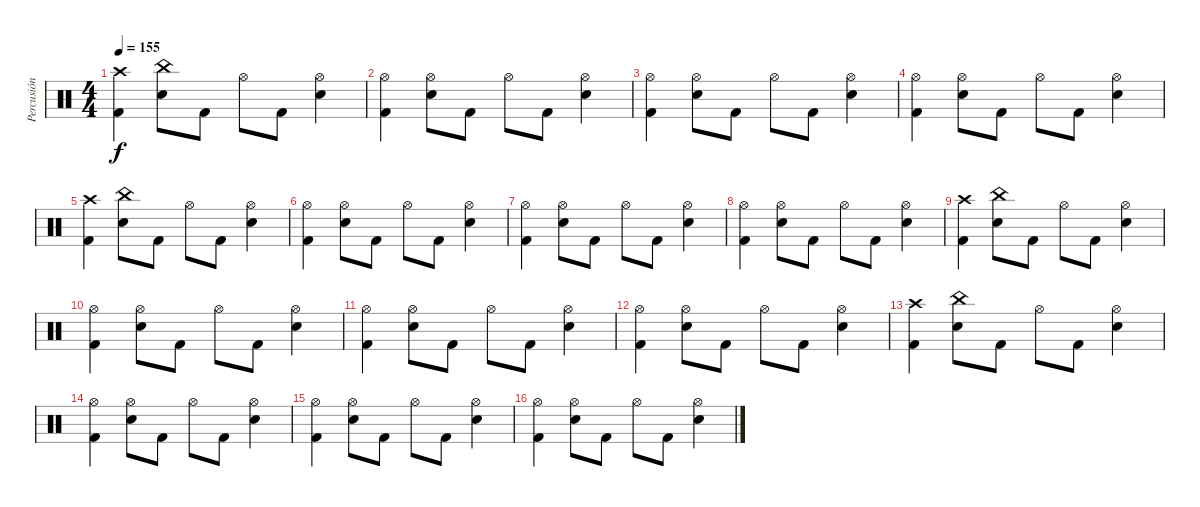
\track ("Percusión" "Percusión") {instrument percussion}
\staff {score}
\articulation defaults
\ts (4 4)
\tempo 155
\clef neutral
\ks c
("Crash high (hit)" "Kick (hit) 2").4{dy f} ("China (hit)" "Electric Snare (hit)").8 "Kick (hit) 2".8 "Hi-Hat (open)".8 "Kick (hit) 2".8 ("Hi-Hat (open)" "Electric Snare (hit)").4 |
("Hi-Hat (open)" "Kick (hit) 2").4 ("Hi-Hat (open)" "Electric Snare (hit)").8 "Kick (hit) 2".8 "Hi-Hat (open)".8 "Kick (hit) 2".8 ("Hi-Hat (open)" "Electric Snare (hit)").4 |
("Hi-Hat (open)" "Kick (hit) 2").4 ("Hi-Hat (open)" "Electric Snare (hit)").8 "Kick (hit) 2".8 "Hi-Hat (open)".8 "Kick (hit) 2".8 ("Hi-Hat (open)" "Electric Snare (hit)").4 |
("Hi-Hat (open)" "Kick (hit) 2").4 ("Hi-Hat (open)" "Electric Snare (hit)").8 "Kick (hit) 2".8 "Hi-Hat (open)".8 "Kick (hit) 2".8 ("Hi-Hat (open)" "Electric Snare (hit)").4 |
("Crash high (hit)" "Kick (hit) 2").4 ("China (hit)" "Electric Snare (hit)").8 "Kick (hit) 2".8 "Hi-Hat (open)".8 "Kick (hit) 2".8 ("Hi-Hat (open)" "Electric Snare (hit)").4 |
("Hi-Hat (open)" "Kick (hit) 2").4 ("Hi-Hat (open)" "Electric Snare (hit)").8 "Kick (hit) 2".8 "Hi-Hat (open)".8 "Kick (hit) 2".8 ("Hi-Hat (open)" "Electric Snare (hit)").4 |
("Hi-Hat (open)" "Kick (hit) 2").4 ("Hi-Hat (open)" "Electric Snare (hit)").8 "Kick (hit) 2".8 "Hi-Hat (open)".8 "Kick (hit) 2".8 ("Hi-Hat (open)" "Electric Snare (hit)").4 |
("Hi-Hat (open)" "Kick (hit) 2").4 ("Hi-Hat (open)" "Electric Snare (hit)").8 "Kick (hit) 2".8 "Hi-Hat (open)".8 "Kick (hit) 2".8 ("Hi-Hat (open)" "Electric Snare (hit)").4 |
("Crash high (hit)" "Kick (hit) 2").4 ("China (hit)" "Electric Snare (hit)").8 "Kick (hit) 2".8 "Hi-Hat (open)".8 "Kick (hit) 2".8 ("Hi-Hat (open)" "Electric Snare (hit)").4 |
("Hi-Hat (open)" "Kick (hit) 2").4 ("Hi-Hat (open)" "Electric Snare (hit)").8 "Kick (hit) 2".8 "Hi-Hat (open)".8 "Kick (hit) 2".8 ("Hi-Hat (open)" "Electric Snare (hit)").4 |
("Hi-Hat (open)" "Kick (hit) 2").4 ("Hi-Hat (open)" "Electric Snare (hit)").8 "Kick (hit) 2".8 "Hi-Hat (open)".8 "Kick (hit) 2".8 ("Hi-Hat (open)" "Electric Snare (hit)").4 |
("Hi-Hat (open)" "Kick (hit) 2").4 ("Hi-Hat (open)" "Electric Snare (hit)").8 "Kick (hit) 2".8 "Hi-Hat (open)".8 "Kick (hit) 2".8 ("Hi-Hat (open)" "Electric Snare (hit)").4 |
("Crash high (hit)" "Kick (hit) 2").4 ("China (hit)" "Electric Snare (hit)").8 "Kick (hit) 2".8 "Hi-Hat (open)".8 "Kick (hit) 2".8 ("Hi-Hat (open)" "Electric Snare (hit)").4 |
("Hi-Hat (open)" "Kick (hit) 2").4 ("Hi-Hat (open)" "Electric Snare (hit)").8 "Kick (hit) 2".8 "Hi-Hat (open)".8 "Kick (hit) 2".8 ("Hi-Hat (open)" "Electric Snare (hit)").4 |
("Hi-Hat (open)" "Kick (hit) 2").4 ("Hi-Hat (open)" "Electric Snare (hit)").8 "Kick (hit) 2".8 "Hi-Hat (open)".8 "Kick (hit) 2".8 ("Hi-Hat (open)" "Electric Snare (hit)").4 |
("Hi-Hat (open)" "Kick (hit) 2").4 ("Hi-Hat (open)" "Electric Snare (hit)").8 "Kick (hit) 2".8 "Hi-Hat (open)".8 "Kick (hit) 2".8 ("Hi-Hat (open)" "Electric Snare (hit)").4
